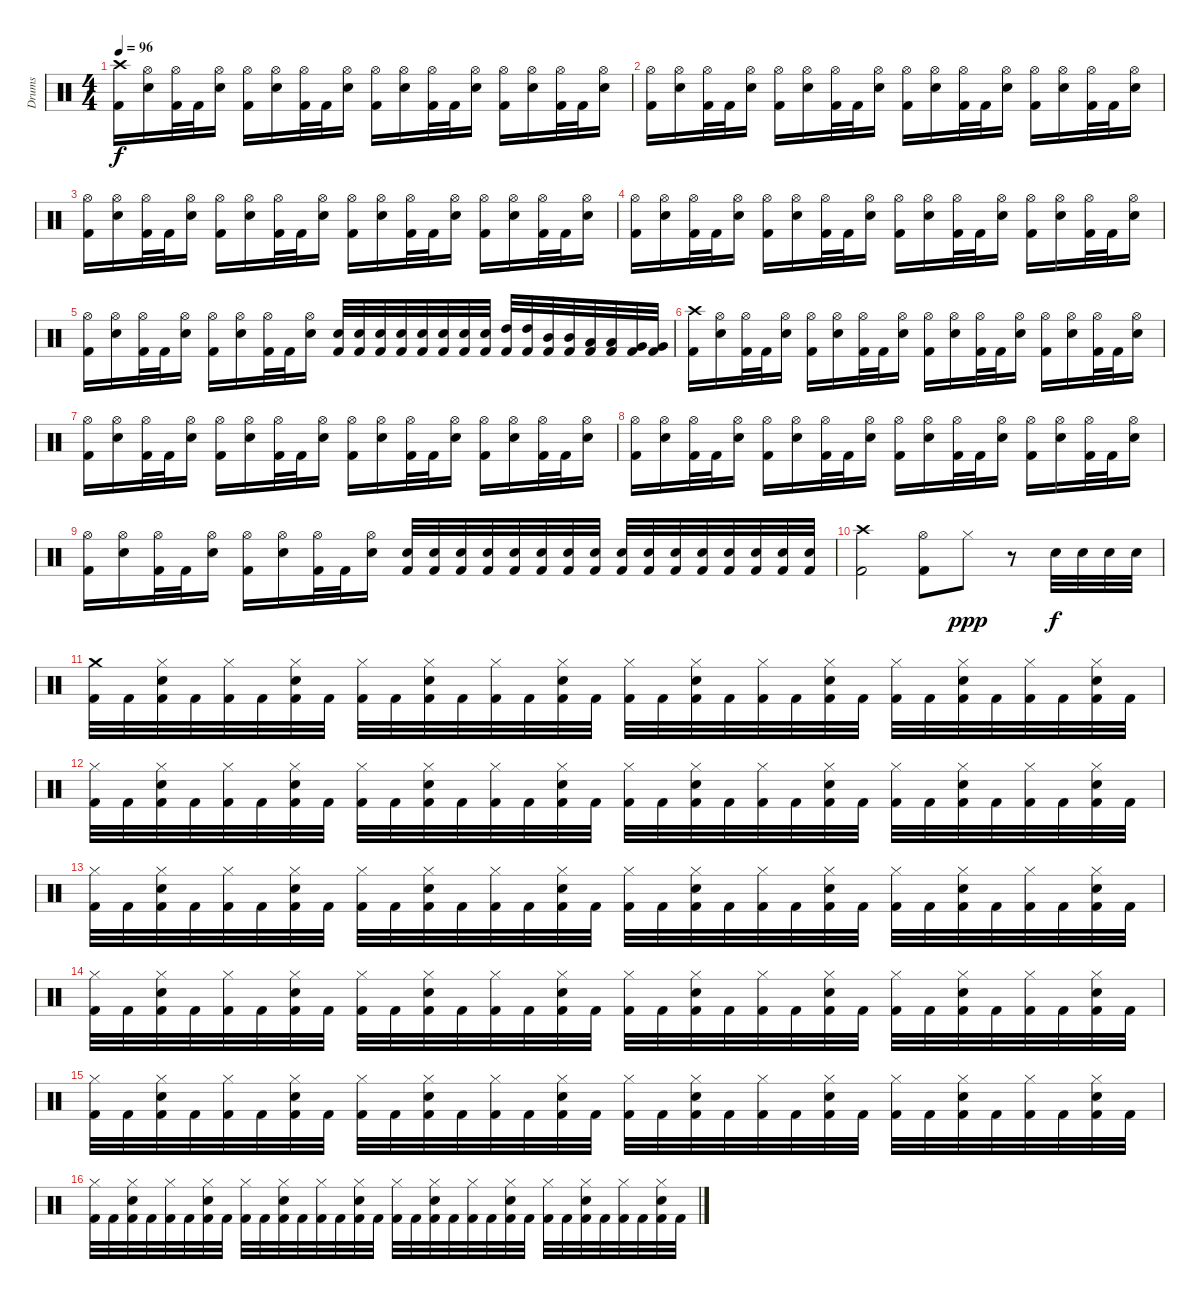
\track ("Drums" "Drums") {instrument percussion}
\staff {score}
\articulation defaults
\ts (4 4)
\section ("" "")
\tempo 96
\clef neutral
\ks c
("Kick (hit) 2" "Crash high (hit)").16{dy f} ("Snare (hit) 2" "Hi-Hat (open)").16 ("Kick (hit) 2" "Hi-Hat (open)").32 "Kick (hit) 2".32 ("Snare (hit) 2" "Hi-Hat (open)").16 ("Kick (hit) 2" "Hi-Hat (open)").16 ("Snare (hit) 2" "Hi-Hat (open)").16 ("Kick (hit) 2" "Hi-Hat (open)").32 "Kick (hit) 2".32 ("Snare (hit) 2" "Hi-Hat (open)").16 ("Kick (hit) 2" "Hi-Hat (open)").16 ("Snare (hit) 2" "Hi-Hat (open)").16 ("Kick (hit) 2" "Hi-Hat (open)").32 "Kick (hit) 2".32 ("Snare (hit) 2" "Hi-Hat (open)").16 ("Kick (hit) 2" "Hi-Hat (open)").16 ("Snare (hit) 2" "Hi-Hat (open)").16 ("Kick (hit) 2" "Hi-Hat (open)").32 "Kick (hit) 2".32 ("Snare (hit) 2" "Hi-Hat (open)").16 |
("Kick (hit) 2" "Hi-Hat (open)").16 ("Snare (hit) 2" "Hi-Hat (open)").16 ("Kick (hit) 2" "Hi-Hat (open)").32 "Kick (hit) 2".32 ("Snare (hit) 2" "Hi-Hat (open)").16 ("Kick (hit) 2" "Hi-Hat (open)").16 ("Snare (hit) 2" "Hi-Hat (open)").16 ("Kick (hit) 2" "Hi-Hat (open)").32 "Kick (hit) 2".32 ("Snare (hit) 2" "Hi-Hat (open)").16 ("Kick (hit) 2" "Hi-Hat (open)").16 ("Snare (hit) 2" "Hi-Hat (open)").16 ("Kick (hit) 2" "Hi-Hat (open)").32 "Kick (hit) 2".32 ("Snare (hit) 2" "Hi-Hat (open)").16 ("Kick (hit) 2" "Hi-Hat (open)").16 ("Snare (hit) 2" "Hi-Hat (open)").16 ("Kick (hit) 2" "Hi-Hat (open)").32 "Kick (hit) 2".32 ("Snare (hit) 2" "Hi-Hat (open)").16 |
("Kick (hit) 2" "Hi-Hat (open)").16 ("Snare (hit) 2" "Hi-Hat (open)").16 ("Kick (hit) 2" "Hi-Hat (open)").32 "Kick (hit) 2".32 ("Snare (hit) 2" "Hi-Hat (open)").16 ("Kick (hit) 2" "Hi-Hat (open)").16 ("Snare (hit) 2" "Hi-Hat (open)").16 ("Kick (hit) 2" "Hi-Hat (open)").32 "Kick (hit) 2".32 ("Snare (hit) 2" "Hi-Hat (open)").16 ("Kick (hit) 2" "Hi-Hat (open)").16 ("Snare (hit) 2" "Hi-Hat (open)").16 ("Kick (hit) 2" "Hi-Hat (open)").32 "Kick (hit) 2".32 ("Snare (hit) 2" "Hi-Hat (open)").16 ("Kick (hit) 2" "Hi-Hat (open)").16 ("Snare (hit) 2" "Hi-Hat (open)").16 ("Kick (hit) 2" "Hi-Hat (open)").32 "Kick (hit) 2".32 ("Snare (hit) 2" "Hi-Hat (open)").16 |
("Kick (hit) 2" "Hi-Hat (open)").16 ("Snare (hit) 2" "Hi-Hat (open)").16 ("Kick (hit) 2" "Hi-Hat (open)").32 "Kick (hit) 2".32 ("Snare (hit) 2" "Hi-Hat (open)").16 ("Kick (hit) 2" "Hi-Hat (open)").16 ("Snare (hit) 2" "Hi-Hat (open)").16 ("Kick (hit) 2" "Hi-Hat (open)").32 "Kick (hit) 2".32 ("Snare (hit) 2" "Hi-Hat (open)").16 ("Kick (hit) 2" "Hi-Hat (open)").16 ("Snare (hit) 2" "Hi-Hat (open)").16 ("Kick (hit) 2" "Hi-Hat (open)").32 "Kick (hit) 2".32 ("Snare (hit) 2" "Hi-Hat (open)").16 ("Kick (hit) 2" "Hi-Hat (open)").16 ("Snare (hit) 2" "Hi-Hat (open)").16 ("Kick (hit) 2" "Hi-Hat (open)").32 "Kick (hit) 2".32 ("Snare (hit) 2" "Hi-Hat (open)").16 |
("Kick (hit) 2" "Hi-Hat (open)").16 ("Snare (hit) 2" "Hi-Hat (open)").16 ("Kick (hit) 2" "Hi-Hat (open)").32 "Kick (hit) 2".32 ("Snare (hit) 2" "Hi-Hat (open)").16 ("Kick (hit) 2" "Hi-Hat (open)").16 ("Snare (hit) 2" "Hi-Hat (open)").16 ("Kick (hit) 2" "Hi-Hat (open)").32 "Kick (hit) 2".32 ("Snare (hit) 2" "Hi-Hat (open)").16 ("Kick (hit) 2" "Snare (hit) 2").32 ("Kick (hit) 2" "Snare (hit) 2").32 ("Kick (hit) 2" "Snare (hit) 2").32 ("Kick (hit) 2" "Snare (hit) 2").32 ("Kick (hit) 2" "Snare (hit) 2").32 ("Kick (hit) 2" "Snare (hit) 2").32 ("Kick (hit) 2" "Snare (hit) 2").32 ("Kick (hit) 2" "Snare (hit) 2").32 ("Kick (hit) 2" "High Tom (hit)").32 ("Kick (hit) 2" "High Tom (hit)").32 ("Kick (hit) 2" "Mid Tom (hit)").32 ("Kick (hit) 2" "Mid Tom (hit)").32 ("Kick (hit) 2" "Low Tom (hit)").32 ("Kick (hit) 2" "Low Tom (hit)").32 ("Kick (hit) 2" "Very Low Tom (hit)").32 ("Kick (hit) 2" "Very Low Tom (hit)").32 |
("Kick (hit) 2" "Crash high (hit)").16 ("Snare (hit) 2" "Hi-Hat (open)").16 ("Kick (hit) 2" "Hi-Hat (open)").32 "Kick (hit) 2".32 ("Snare (hit) 2" "Hi-Hat (open)").16 ("Kick (hit) 2" "Hi-Hat (open)").16 ("Snare (hit) 2" "Hi-Hat (open)").16 ("Kick (hit) 2" "Hi-Hat (open)").32 "Kick (hit) 2".32 ("Snare (hit) 2" "Hi-Hat (open)").16 ("Kick (hit) 2" "Hi-Hat (open)").16 ("Snare (hit) 2" "Hi-Hat (open)").16 ("Kick (hit) 2" "Hi-Hat (open)").32 "Kick (hit) 2".32 ("Snare (hit) 2" "Hi-Hat (open)").16 ("Kick (hit) 2" "Hi-Hat (open)").16 ("Snare (hit) 2" "Hi-Hat (open)").16 ("Kick (hit) 2" "Hi-Hat (open)").32 "Kick (hit) 2".32 ("Snare (hit) 2" "Hi-Hat (open)").16 |
("Kick (hit) 2" "Hi-Hat (open)").16 ("Snare (hit) 2" "Hi-Hat (open)").16 ("Kick (hit) 2" "Hi-Hat (open)").32 "Kick (hit) 2".32 ("Snare (hit) 2" "Hi-Hat (open)").16 ("Kick (hit) 2" "Hi-Hat (open)").16 ("Snare (hit) 2" "Hi-Hat (open)").16 ("Kick (hit) 2" "Hi-Hat (open)").32 "Kick (hit) 2".32 ("Snare (hit) 2" "Hi-Hat (open)").16 ("Kick (hit) 2" "Hi-Hat (open)").16 ("Snare (hit) 2" "Hi-Hat (open)").16 ("Kick (hit) 2" "Hi-Hat (open)").32 "Kick (hit) 2".32 ("Snare (hit) 2" "Hi-Hat (open)").16 ("Kick (hit) 2" "Hi-Hat (open)").16 ("Snare (hit) 2" "Hi-Hat (open)").16 ("Kick (hit) 2" "Hi-Hat (open)").32 "Kick (hit) 2".32 ("Snare (hit) 2" "Hi-Hat (open)").16 |
("Kick (hit) 2" "Hi-Hat (open)").16 ("Snare (hit) 2" "Hi-Hat (open)").16 ("Kick (hit) 2" "Hi-Hat (open)").32 "Kick (hit) 2".32 ("Snare (hit) 2" "Hi-Hat (open)").16 ("Kick (hit) 2" "Hi-Hat (open)").16 ("Snare (hit) 2" "Hi-Hat (open)").16 ("Kick (hit) 2" "Hi-Hat (open)").32 "Kick (hit) 2".32 ("Snare (hit) 2" "Hi-Hat (open)").16 ("Kick (hit) 2" "Hi-Hat (open)").16 ("Snare (hit) 2" "Hi-Hat (open)").16 ("Kick (hit) 2" "Hi-Hat (open)").32 "Kick (hit) 2".32 ("Snare (hit) 2" "Hi-Hat (open)").16 ("Kick (hit) 2" "Hi-Hat (open)").16 ("Snare (hit) 2" "Hi-Hat (open)").16 ("Kick (hit) 2" "Hi-Hat (open)").32 "Kick (hit) 2".32 ("Snare (hit) 2" "Hi-Hat (open)").16 |
("Kick (hit) 2" "Hi-Hat (open)").16 ("Snare (hit) 2" "Hi-Hat (open)").16 ("Kick (hit) 2" "Hi-Hat (open)").32 "Kick (hit) 2".32 ("Snare (hit) 2" "Hi-Hat (open)").16 ("Kick (hit) 2" "Hi-Hat (open)").16 ("Snare (hit) 2" "Hi-Hat (open)").16 ("Kick (hit) 2" "Hi-Hat (open)").32 "Kick (hit) 2".32 ("Snare (hit) 2" "Hi-Hat (open)").16 ("Kick (hit) 2" "Snare (hit) 2").32 ("Kick (hit) 2" "Snare (hit) 2").32 ("Kick (hit) 2" "Snare (hit) 2").32 ("Kick (hit) 2" "Snare (hit) 2").32 ("Kick (hit) 2" "Snare (hit) 2").32 ("Kick (hit) 2" "Snare (hit) 2").32 ("Kick (hit) 2" "Snare (hit) 2").32 ("Kick (hit) 2" "Snare (hit) 2").32 ("Kick (hit) 2" "Snare (hit) 2").32 ("Kick (hit) 2" "Snare (hit) 2").32 ("Kick (hit) 2" "Snare (hit) 2").32 ("Kick (hit) 2" "Snare (hit) 2").32 ("Kick (hit) 2" "Snare (hit) 2").32 ("Kick (hit) 2" "Snare (hit) 2").32 ("Kick (hit) 2" "Snare (hit) 2").32 ("Kick (hit) 2" "Snare (hit) 2").32 |
\section ("" "")
("Kick (hit) 2" "Crash high (hit)").2 ("Kick (hit) 2" "Hi-Hat (open)").8 "Hi-Hat (closed)".8{dy ppp} r.8 "Snare (hit) 2".32{dy f} "Snare (hit) 2".32 "Snare (hit) 2".32 "Snare (hit) 2".32 |
("Kick (hit) 2" "Crash medium (hit)").32 "Kick (hit) 2".32 ("Kick (hit) 2" "Snare (hit) 2" "Hi-Hat (closed)").32 "Kick (hit) 2".32 ("Kick (hit) 2" "Hi-Hat (closed)").32 "Kick (hit) 2".32 ("Kick (hit) 2" "Snare (hit) 2" "Hi-Hat (closed)").32 "Kick (hit) 2".32 ("Kick (hit) 2" "Hi-Hat (closed)").32 "Kick (hit) 2".32 ("Kick (hit) 2" "Snare (hit) 2" "Hi-Hat (closed)").32 "Kick (hit) 2".32 ("Kick (hit) 2" "Hi-Hat (closed)").32 "Kick (hit) 2".32 ("Kick (hit) 2" "Snare (hit) 2" "Hi-Hat (closed)").32 "Kick (hit) 2".32 ("Kick (hit) 2" "Hi-Hat (closed)").32 "Kick (hit) 2".32 ("Kick (hit) 2" "Snare (hit) 2" "Hi-Hat (closed)").32 "Kick (hit) 2".32 ("Kick (hit) 2" "Hi-Hat (closed)").32 "Kick (hit) 2".32 ("Kick (hit) 2" "Snare (hit) 2" "Hi-Hat (closed)").32 "Kick (hit) 2".32 ("Kick (hit) 2" "Hi-Hat (closed)").32 "Kick (hit) 2".32 ("Kick (hit) 2" "Snare (hit) 2" "Hi-Hat (closed)").32 "Kick (hit) 2".32 ("Kick (hit) 2" "Hi-Hat (closed)").32 "Kick (hit) 2".32 ("Kick (hit) 2" "Snare (hit) 2" "Hi-Hat (closed)").32 "Kick (hit) 2".32 |
("Kick (hit) 2" "Hi-Hat (closed)").32 "Kick (hit) 2".32 ("Kick (hit) 2" "Snare (hit) 2" "Hi-Hat (closed)").32 "Kick (hit) 2".32 ("Kick (hit) 2" "Hi-Hat (closed)").32 "Kick (hit) 2".32 ("Kick (hit) 2" "Snare (hit) 2" "Hi-Hat (closed)").32 "Kick (hit) 2".32 ("Kick (hit) 2" "Hi-Hat (closed)").32 "Kick (hit) 2".32 ("Kick (hit) 2" "Snare (hit) 2" "Hi-Hat (closed)").32 "Kick (hit) 2".32 ("Kick (hit) 2" "Hi-Hat (closed)").32 "Kick (hit) 2".32 ("Kick (hit) 2" "Snare (hit) 2" "Hi-Hat (closed)").32 "Kick (hit) 2".32 ("Kick (hit) 2" "Hi-Hat (closed)").32 "Kick (hit) 2".32 ("Kick (hit) 2" "Snare (hit) 2" "Hi-Hat (closed)").32 "Kick (hit) 2".32 ("Kick (hit) 2" "Hi-Hat (closed)").32 "Kick (hit) 2".32 ("Kick (hit) 2" "Snare (hit) 2" "Hi-Hat (closed)").32 "Kick (hit) 2".32 ("Kick (hit) 2" "Hi-Hat (closed)").32 "Kick (hit) 2".32 ("Kick (hit) 2" "Snare (hit) 2" "Hi-Hat (closed)").32 "Kick (hit) 2".32 ("Kick (hit) 2" "Hi-Hat (closed)").32 "Kick (hit) 2".32 ("Kick (hit) 2" "Snare (hit) 2" "Hi-Hat (closed)").32 "Kick (hit) 2".32 |
("Kick (hit) 2" "Hi-Hat (closed)").32 "Kick (hit) 2".32 ("Kick (hit) 2" "Snare (hit) 2" "Hi-Hat (closed)").32 "Kick (hit) 2".32 ("Kick (hit) 2" "Hi-Hat (closed)").32 "Kick (hit) 2".32 ("Kick (hit) 2" "Snare (hit) 2" "Hi-Hat (closed)").32 "Kick (hit) 2".32 ("Kick (hit) 2" "Hi-Hat (closed)").32 "Kick (hit) 2".32 ("Kick (hit) 2" "Snare (hit) 2" "Hi-Hat (closed)").32 "Kick (hit) 2".32 ("Kick (hit) 2" "Hi-Hat (closed)").32 "Kick (hit) 2".32 ("Kick (hit) 2" "Snare (hit) 2" "Hi-Hat (closed)").32 "Kick (hit) 2".32 ("Kick (hit) 2" "Hi-Hat (closed)").32 "Kick (hit) 2".32 ("Kick (hit) 2" "Snare (hit) 2" "Hi-Hat (closed)").32 "Kick (hit) 2".32 ("Kick (hit) 2" "Hi-Hat (closed)").32 "Kick (hit) 2".32 ("Kick (hit) 2" "Snare (hit) 2" "Hi-Hat (closed)").32 "Kick (hit) 2".32 ("Kick (hit) 2" "Hi-Hat (closed)").32 "Kick (hit) 2".32 ("Kick (hit) 2" "Snare (hit) 2" "Hi-Hat (closed)").32 "Kick (hit) 2".32 ("Kick (hit) 2" "Hi-Hat (closed)").32 "Kick (hit) 2".32 ("Kick (hit) 2" "Snare (hit) 2" "Hi-Hat (closed)").32 "Kick (hit) 2".32 |
("Kick (hit) 2" "Hi-Hat (closed)").32 "Kick (hit) 2".32 ("Kick (hit) 2" "Snare (hit) 2" "Hi-Hat (closed)").32 "Kick (hit) 2".32 ("Kick (hit) 2" "Hi-Hat (closed)").32 "Kick (hit) 2".32 ("Kick (hit) 2" "Snare (hit) 2" "Hi-Hat (closed)").32 "Kick (hit) 2".32 ("Kick (hit) 2" "Hi-Hat (closed)").32 "Kick (hit) 2".32 ("Kick (hit) 2" "Snare (hit) 2" "Hi-Hat (closed)").32 "Kick (hit) 2".32 ("Kick (hit) 2" "Hi-Hat (closed)").32 "Kick (hit) 2".32 ("Kick (hit) 2" "Snare (hit) 2" "Hi-Hat (closed)").32 "Kick (hit) 2".32 ("Kick (hit) 2" "Hi-Hat (closed)").32 "Kick (hit) 2".32 ("Kick (hit) 2" "Snare (hit) 2" "Hi-Hat (closed)").32 "Kick (hit) 2".32 ("Kick (hit) 2" "Hi-Hat (closed)").32 "Kick (hit) 2".32 ("Kick (hit) 2" "Snare (hit) 2" "Hi-Hat (closed)").32 "Kick (hit) 2".32 ("Kick (hit) 2" "Hi-Hat (closed)").32 "Kick (hit) 2".32 ("Kick (hit) 2" "Snare (hit) 2" "Hi-Hat (closed)").32 "Kick (hit) 2".32 ("Kick (hit) 2" "Hi-Hat (closed)").32 "Kick (hit) 2".32 ("Kick (hit) 2" "Snare (hit) 2" "Hi-Hat (closed)").32 "Kick (hit) 2".32 |
("Kick (hit) 2" "Hi-Hat (closed)").32 "Kick (hit) 2".32 ("Kick (hit) 2" "Snare (hit) 2" "Hi-Hat (closed)").32 "Kick (hit) 2".32 ("Kick (hit) 2" "Hi-Hat (closed)").32 "Kick (hit) 2".32 ("Kick (hit) 2" "Snare (hit) 2" "Hi-Hat (closed)").32 "Kick (hit) 2".32 ("Kick (hit) 2" "Hi-Hat (closed)").32 "Kick (hit) 2".32 ("Kick (hit) 2" "Snare (hit) 2" "Hi-Hat (closed)").32 "Kick (hit) 2".32 ("Kick (hit) 2" "Hi-Hat (closed)").32 "Kick (hit) 2".32 ("Kick (hit) 2" "Snare (hit) 2" "Hi-Hat (closed)").32 "Kick (hit) 2".32 ("Kick (hit) 2" "Hi-Hat (closed)").32 "Kick (hit) 2".32 ("Kick (hit) 2" "Snare (hit) 2" "Hi-Hat (closed)").32 "Kick (hit) 2".32 ("Kick (hit) 2" "Hi-Hat (closed)").32 "Kick (hit) 2".32 ("Kick (hit) 2" "Snare (hit) 2" "Hi-Hat (closed)").32 "Kick (hit) 2".32 ("Kick (hit) 2" "Hi-Hat (closed)").32 "Kick (hit) 2".32 ("Kick (hit) 2" "Snare (hit) 2" "Hi-Hat (closed)").32 "Kick (hit) 2".32 ("Kick (hit) 2" "Hi-Hat (closed)").32 "Kick (hit) 2".32 ("Kick (hit) 2" "Snare (hit) 2" "Hi-Hat (closed)").32 "Kick (hit) 2".32 |
("Kick (hit) 2" "Hi-Hat (closed)").32 "Kick (hit) 2".32 ("Kick (hit) 2" "Snare (hit) 2" "Hi-Hat (closed)").32 "Kick (hit) 2".32 ("Kick (hit) 2" "Hi-Hat (closed)").32 "Kick (hit) 2".32 ("Kick (hit) 2" "Snare (hit) 2" "Hi-Hat (closed)").32 "Kick (hit) 2".32 ("Kick (hit) 2" "Hi-Hat (closed)").32 "Kick (hit) 2".32 ("Kick (hit) 2" "Snare (hit) 2" "Hi-Hat (closed)").32 "Kick (hit) 2".32 ("Kick (hit) 2" "Hi-Hat (closed)").32 "Kick (hit) 2".32 ("Kick (hit) 2" "Snare (hit) 2" "Hi-Hat (closed)").32 "Kick (hit) 2".32 ("Kick (hit) 2" "Hi-Hat (closed)").32 "Kick (hit) 2".32 ("Kick (hit) 2" "Snare (hit) 2" "Hi-Hat (closed)").32 "Kick (hit) 2".32 ("Kick (hit) 2" "Hi-Hat (closed)").32 "Kick (hit) 2".32 ("Kick (hit) 2" "Snare (hit) 2" "Hi-Hat (closed)").32 "Kick (hit) 2".32 ("Kick (hit) 2" "Hi-Hat (closed)").32 "Kick (hit) 2".32 ("Kick (hit) 2" "Snare (hit) 2" "Hi-Hat (closed)").32 "Kick (hit) 2".32 ("Kick (hit) 2" "Hi-Hat (closed)").32 "Kick (hit) 2".32 ("Kick (hit) 2" "Snare (hit) 2" "Hi-Hat (closed)").32 "Kick (hit) 2".32
